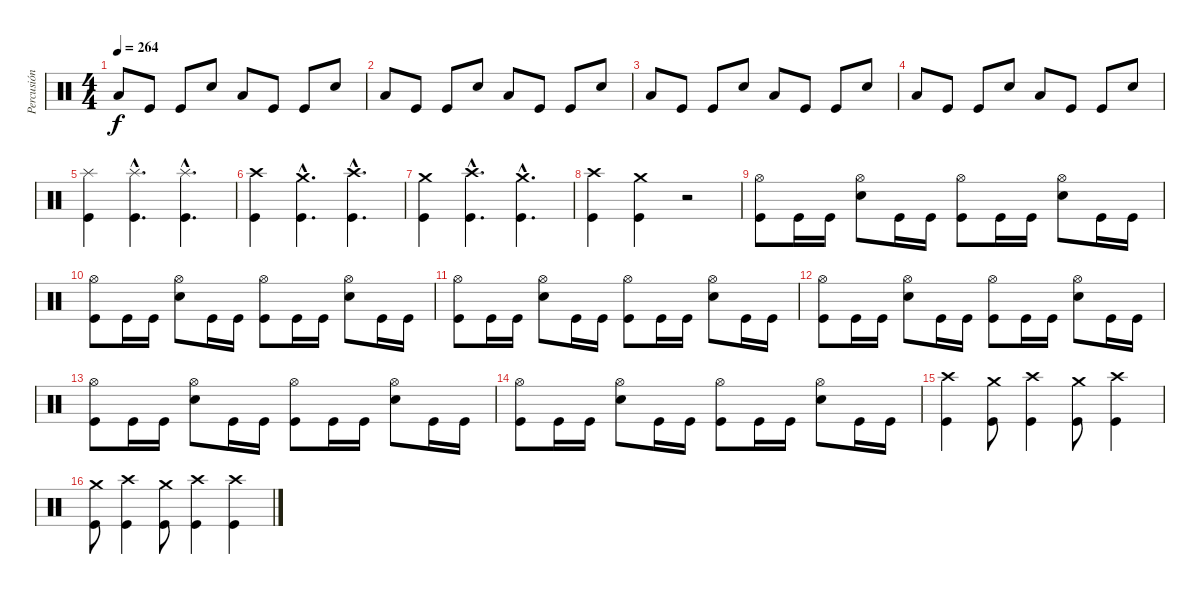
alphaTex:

\track ("Percusión" "Percusión") {instrument percussion}
\staff {score}
\articulation defaults
\ts (4 4)
\tempo 264
\clef neutral
\ks c "Low Floor Tom (hit)".8{dy f} "Kick (hit)".8 "Kick (hit)".8 "Snare (hit) 2".8 "Low Floor Tom (hit)".8 "Kick (hit)".8 "Kick (hit)".8 "Snare (hit) 2".8
|
"Low Floor Tom (hit)".8 "Kick (hit)".8 "Kick (hit)".8 "Snare (hit) 2".8 "Low Floor Tom (hit)".8 "Kick (hit)".8 "Kick (hit)".8 "Snare (hit) 2".8 |
"Low Floor Tom (hit)".8 "Kick (hit)".8 "Kick (hit)".8 "Snare (hit) 2".8 "Low Floor Tom (hit)".8 "Kick (hit)".8 "Kick (hit)".8 "Snare (hit) 2".8 |
"Low Floor Tom (hit)".8 "Kick (hit)".8 "Kick (hit)".8 "Snare (hit) 2".8 "Low Floor Tom (hit)".8 "Kick (hit)".8 "Kick (hit)".8 "Snare (hit) 2".8 |
("Splash (hit)" "Kick (hit)").4 ("Splash (hit)"{hac} "Kick (hit)"{hac}).4{d} ("Splash (hit)"{hac} "Kick (hit)"{hac}).4{d} |
("Crash high (hit)" "Kick (hit)").4 ("Crash medium (hit)"{hac} "Kick (hit)"{hac}).4{d} ("Crash high (hit)"{hac} "Kick (hit)"{hac}).4{d} |
("Crash medium (hit)" "Kick (hit)").4 ("Crash high (hit)"{hac} "Kick (hit)"{hac}).4{d} ("Crash medium (hit)"{hac} "Kick (hit)"{hac}).4{d} |
("Crash high (hit)" "Kick (hit)").4 ("Crash medium (hit)" "Kick (hit)").4 r.2 |
("Hi-Hat (open)" "Kick (hit)").8 "Kick (hit)".16 "Kick (hit)".16 ("Hi-Hat (open)" "Snare (hit) 2").8 "Kick (hit)".16 "Kick (hit)".16 ("Hi-Hat (open)" "Kick (hit)").8 "Kick (hit)".16 "Kick (hit)".16 ("Hi-Hat (open)" "Snare (hit) 2").8 "Kick (hit)".16 "Kick (hit)".16 |
("Hi-Hat (open)" "Kick (hit)").8 "Kick (hit)".16 "Kick (hit)".16 ("Hi-Hat (open)" "Snare (hit) 2").8 "Kick (hit)".16 "Kick (hit)".16 ("Hi-Hat (open)" "Kick (hit)").8 "Kick (hit)".16 "Kick (hit)".16 ("Hi-Hat (open)" "Snare (hit) 2").8 "Kick (hit)".16 "Kick (hit)".16 |
("Hi-Hat (open)" "Kick (hit)").8 "Kick (hit)".16 "Kick (hit)".16 ("Hi-Hat (open)" "Snare (hit) 2").8 "Kick (hit)".16 "Kick (hit)".16 ("Hi-Hat (open)" "Kick (hit)").8 "Kick (hit)".16 "Kick (hit)".16 ("Hi-Hat (open)" "Snare (hit) 2").8 "Kick (hit)".16 "Kick (hit)".16 |
("Hi-Hat (open)" "Kick (hit)").8 "Kick (hit)".16 "Kick (hit)".16 ("Hi-Hat (open)" "Snare (hit) 2").8 "Kick (hit)".16 "Kick (hit)".16 ("Hi-Hat (open)" "Kick (hit)").8 "Kick (hit)".16 "Kick (hit)".16 ("Hi-Hat (open)" "Snare (hit) 2").8 "Kick (hit)".16 "Kick (hit)".16 |
("Hi-Hat (open)" "Kick (hit)").8 "Kick (hit)".16 "Kick (hit)".16 ("Hi-Hat (open)" "Snare (hit) 2").8 "Kick (hit)".16 "Kick (hit)".16 ("Hi-Hat (open)" "Kick (hit)").8 "Kick (hit)".16 "Kick (hit)".16 ("Hi-Hat (open)" "Snare (hit) 2").8 "Kick (hit)".16 "Kick (hit)".16 |
("Hi-Hat (open)" "Kick (hit)").8 "Kick (hit)".16 "Kick (hit)".16 ("Hi-Hat (open)" "Snare (hit) 2").8 "Kick (hit)".16 "Kick (hit)".16 ("Hi-Hat (open)" "Kick (hit)").8 "Kick (hit)".16 "Kick (hit)".16 ("Hi-Hat (open)" "Snare (hit) 2").8 "Kick (hit)".16 "Kick (hit)".16 |
("Crash high (hit)" "Kick (hit)").4 ("Crash medium (hit)" "Kick (hit)").8 ("Crash high (hit)" "Kick (hit)").4 ("Crash medium (hit)" "Kick (hit)").8 ("Crash high (hit)" "Kick (hit)").4 |
("Crash medium (hit)" "Kick (hit)").8 ("Crash high (hit)" "Kick (hit)").4 ("Crash medium (hit)" "Kick (hit)").8 ("Crash high (hit)" "Kick (hit)").4 ("Crash high (hit)" "Kick (hit)").4
